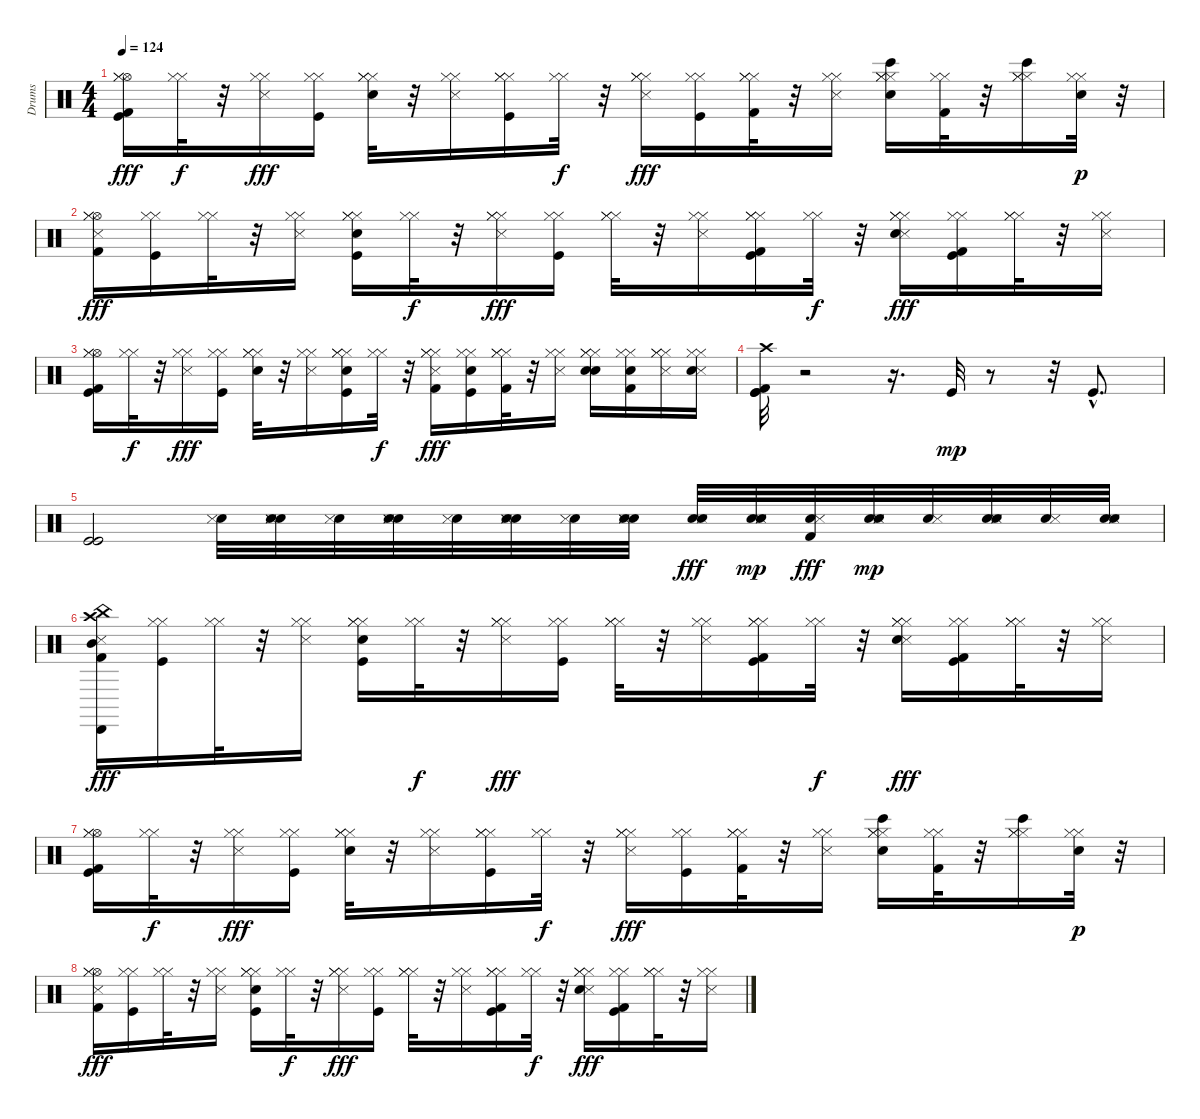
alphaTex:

\track ("Drums" "Drums") {instrument percussion}
\staff {score}
\articulation defaults
\ts (4 4)
\tempo 124
\clef neutral
\ks c
("Kick (hit)" "Hi-Hat (open)" "Kick (hit) 2" "Hi-Hat (closed)" "Hi-Hat (closed)").16{dy fff} ("Hi-Hat (closed)" "Hi-Hat (closed)").32{dy f} r.32 ("Metronome (hit)" "Hi-Hat (closed)" "Hi-Hat (closed)").16{dy fff} ("Kick (hit)" "Hi-Hat (closed)" "Hi-Hat (closed)").16 ("Electric Snare (hit)" "Hi-Hat (closed)" "Hi-Hat (closed)" "Hi-Hat (closed)").32 r.32 ("Metronome (hit)" "Hi-Hat (closed)" "Hi-Hat (closed)").16 ("Kick (hit)" "Hi-Hat (closed)" "Hi-Hat (closed)" "Hi-Hat (closed)").16 ("Hi-Hat (closed)" "Hi-Hat (closed)").32{dy f} r.32 ("Metronome (hit)" "Hi-Hat (closed)" "Hi-Hat (closed)" "Hi-Hat (closed)").16{dy fff} ("Kick (hit)" "Hi-Hat (closed)" "Hi-Hat (closed)").16 ("Hi-Hat (closed)" "Kick (hit) 2" "Hi-Hat (closed)" "Hi-Hat (closed)").32 r.32 ("Metronome (hit)" "Hi-Hat (closed)" "Hi-Hat (closed)").16 ("Bongo High (hit)" "Electric Snare (hit)" "Hi-Hat (closed)" "Hi-Hat (closed)" "Hi-Hat (closed)").16 ("Kick (hit) 2" "Hi-Hat (closed)" "Hi-Hat (closed)").32 r.32 ("Bongo High (hit)" "Hi-Hat (closed)" "Hi-Hat (closed)" "Hi-Hat (closed)").16 ("Hi-Hat (closed)" "Hi-Hat (closed)" "Electric Snare (hit)").32{dy p} r.32 |
("Metronome (hit)" "Kick (hit) 2" "Hi-Hat (open)" "Hi-Hat (closed)" "Hi-Hat (closed)").16{dy fff} ("Kick (hit)" "Hi-Hat (closed)" "Hi-Hat (closed)").16 ("Hi-Hat (closed)" "Hi-Hat (closed)").32 r.32 ("Metronome (hit)" "Hi-Hat (closed)" "Hi-Hat (closed)").16 ("Kick (hit)" "Electric Snare (hit)" "Hi-Hat (closed)" "Hi-Hat (closed)" "Hi-Hat (closed)").16 ("Hi-Hat (closed)" "Hi-Hat (closed)").32{dy f} r.32 ("Metronome (hit)" "Hi-Hat (closed)" "Hi-Hat (closed)" "Hi-Hat (closed)").16{dy fff} ("Kick (hit)" "Hi-Hat (closed)" "Hi-Hat (closed)").16 ("Hi-Hat (closed)" "Hi-Hat (closed)" "Hi-Hat (closed)").32 r.32 ("Metronome (hit)" "Hi-Hat (closed)" "Hi-Hat (closed)").16 ("Kick (hit)" "Kick (hit) 2" "Hi-Hat (closed)" "Hi-Hat (closed)" "Hi-Hat (closed)").16 ("Hi-Hat (closed)" "Hi-Hat (closed)").32{dy f} r.32 ("Metronome (hit)" "Electric Snare (hit)" "Hi-Hat (closed)" "Hi-Hat (closed)" "Hi-Hat (closed)").16{dy fff} ("Kick (hit)" "Kick (hit) 2" "Hi-Hat (closed)" "Hi-Hat (closed)").16 ("Hi-Hat (closed)" "Hi-Hat (closed)" "Hi-Hat (closed)").32 r.32 ("Metronome (hit)" "Hi-Hat (closed)" "Hi-Hat (closed)").16 |
("Kick (hit)" "Hi-Hat (open)" "Kick (hit) 2" "Hi-Hat (closed)" "Hi-Hat (closed)").16 ("Hi-Hat (closed)" "Hi-Hat (closed)").32{dy f} r.32 ("Metronome (hit)" "Hi-Hat (closed)" "Hi-Hat (closed)").16{dy fff} ("Kick (hit)" "Hi-Hat (closed)" "Hi-Hat (closed)").16 ("Hi-Hat (closed)" "Electric Snare (hit)" "Hi-Hat (closed)" "Hi-Hat (closed)").32 r.32 ("Metronome (hit)" "Hi-Hat (closed)" "Hi-Hat (closed)").16 ("Kick (hit)" "Electric Snare (hit)" "Hi-Hat (closed)" "Hi-Hat (closed)" "Hi-Hat (closed)").16 ("Hi-Hat (closed)" "Hi-Hat (closed)").32{dy f} r.32 ("Metronome (hit)" "Kick (hit) 2" "Hi-Hat (closed)" "Hi-Hat (closed)" "Hi-Hat (closed)").16{dy fff} ("Kick (hit)" "Electric Snare (hit)" "Hi-Hat (closed)" "Hi-Hat (closed)").16 ("Kick (hit) 2" "Hi-Hat (closed)" "Hi-Hat (closed)" "Hi-Hat (closed)").32 r.32 ("Metronome (hit)" "Hi-Hat (closed)" "Hi-Hat (closed)").16 ("Hand Clap (hit)" "Hi-Hat (closed)" "Electric Snare (hit)" "Hi-Hat (closed)" "Hi-Hat (closed)").16 ("Hand Clap (hit)" "Kick (hit) 2" "Hi-Hat (closed)" "Hi-Hat (closed)").16 ("Snare (side stick) 3" "Hi-Hat (closed)" "Hi-Hat (closed)" "Hi-Hat (closed)").16 ("Snare (side stick) 3" "Electric Snare (hit)" "Hi-Hat (closed)" "Hi-Hat (closed)").16 |
("Kick (hit)" "Kick (hit)" "Crash high (hit)" "Kick (hit) 2").32 r.2 r.16{d} "Kick (hit)".32{dy mp} r.8 r.32 "Kick (hit)"{hac}.8{d} |
("Kick (hit)" "Kick (hit)").2 ("Snare (hit) 2" "Snare (side stick) 3").32 ("Snare (hit) 2" "Snare (side stick) 3" "Snare (hit) 2" "Snare (side stick) 3").32 ("Snare (hit) 2" "Snare (side stick) 3").32 ("Snare (hit) 2" "Snare (side stick) 3" "Snare (hit) 2" "Snare (side stick) 3").32 ("Snare (hit) 2" "Snare (side stick) 3").32 ("Snare (hit) 2" "Snare (side stick) 3" "Snare (hit) 2" "Snare (side stick) 3").32 ("Snare (hit) 2" "Snare (side stick) 3").32 ("Snare (hit) 2" "Snare (side stick) 3" "Snare (hit) 2" "Snare (side stick) 3").32 ("Snare (hit) 2" "Snare (side stick) 3" "Electric Snare (hit)").32{dy fff} ("Snare (hit) 2" "Snare (side stick) 3" "Snare (hit) 2" "Snare (side stick) 3").32{dy mp} ("Snare (hit) 2" "Snare (side stick) 3" "Kick (hit) 2").32{dy fff} ("Snare (hit) 2" "Snare (side stick) 3" "Snare (hit) 2" "Snare (side stick) 3").32{dy mp} ("Snare (hit) 2" "Snare (side stick) 3").32 ("Snare (hit) 2" "Snare (side stick) 3" "Snare (hit) 2" "Snare (side stick) 3").32 ("Snare (hit) 2" "Snare (side stick) 3").32 ("Snare (hit) 2" "Snare (side stick) 3" "Snare (hit) 2" "Snare (side stick) 3").32 |
("Mid Tom (hit)" "Cabasa (hit)" "Metronome (hit)" "Crash high (hit)" "China (hit)" "Kick (hit) 2").16{dy fff} ("Kick (hit)" "Hi-Hat (closed)" "Hi-Hat (closed)").16 ("Hi-Hat (closed)" "Hi-Hat (closed)").32 r.32 ("Metronome (hit)" "Hi-Hat (closed)" "Hi-Hat (closed)").16 ("Kick (hit)" "Hi-Hat (closed)" "Electric Snare (hit)" "Hi-Hat (closed)" "Hi-Hat (closed)").16 ("Hi-Hat (closed)" "Hi-Hat (closed)").32{dy f} r.32 ("Metronome (hit)" "Hi-Hat (closed)" "Hi-Hat (closed)" "Hi-Hat (closed)").16{dy fff} ("Kick (hit)" "Hi-Hat (closed)" "Hi-Hat (closed)").16 ("Hi-Hat (closed)" "Hi-Hat (closed)" "Hi-Hat (closed)").32 r.32 ("Metronome (hit)" "Hi-Hat (closed)" "Hi-Hat (closed)").16 ("Kick (hit)" "Hi-Hat (closed)" "Kick (hit) 2" "Hi-Hat (closed)" "Hi-Hat (closed)").16 ("Hi-Hat (closed)" "Hi-Hat (closed)").32{dy f} r.32 ("Metronome (hit)" "Hi-Hat (closed)" "Electric Snare (hit)" "Hi-Hat (closed)" "Hi-Hat (closed)").16{dy fff} ("Kick (hit)" "Kick (hit) 2" "Hi-Hat (closed)" "Hi-Hat (closed)").16 ("Hi-Hat (closed)" "Hi-Hat (closed)" "Hi-Hat (closed)").32 r.32 ("Metronome (hit)" "Hi-Hat (closed)" "Hi-Hat (closed)").16 |
("Kick (hit)" "Hi-Hat (open)" "Kick (hit) 2" "Hi-Hat (closed)" "Hi-Hat (closed)").16 ("Hi-Hat (closed)" "Hi-Hat (closed)").32{dy f} r.32 ("Metronome (hit)" "Hi-Hat (closed)" "Hi-Hat (closed)").16{dy fff} ("Kick (hit)" "Hi-Hat (closed)" "Hi-Hat (closed)").16 ("Electric Snare (hit)" "Hi-Hat (closed)" "Hi-Hat (closed)" "Hi-Hat (closed)").32 r.32 ("Metronome (hit)" "Hi-Hat (closed)" "Hi-Hat (closed)").16 ("Kick (hit)" "Hi-Hat (closed)" "Hi-Hat (closed)" "Hi-Hat (closed)").16 ("Hi-Hat (closed)" "Hi-Hat (closed)").32{dy f} r.32 ("Metronome (hit)" "Hi-Hat (closed)" "Hi-Hat (closed)" "Hi-Hat (closed)").16{dy fff} ("Kick (hit)" "Hi-Hat (closed)" "Hi-Hat (closed)").16 ("Hi-Hat (closed)" "Kick (hit) 2" "Hi-Hat (closed)" "Hi-Hat (closed)").32 r.32 ("Metronome (hit)" "Hi-Hat (closed)" "Hi-Hat (closed)").16 ("Bongo High (hit)" "Electric Snare (hit)" "Hi-Hat (closed)" "Hi-Hat (closed)" "Hi-Hat (closed)").16 ("Kick (hit) 2" "Hi-Hat (closed)" "Hi-Hat (closed)").32 r.32 ("Bongo High (hit)" "Hi-Hat (closed)" "Hi-Hat (closed)" "Hi-Hat (closed)").16 ("Hi-Hat (closed)" "Hi-Hat (closed)" "Electric Snare (hit)").32{dy p} r.32 |
("Metronome (hit)" "Kick (hit) 2" "Hi-Hat (open)" "Hi-Hat (closed)" "Hi-Hat (closed)").16{dy fff} ("Kick (hit)" "Hi-Hat (closed)" "Hi-Hat (closed)").16 ("Hi-Hat (closed)" "Hi-Hat (closed)").32 r.32 ("Metronome (hit)" "Hi-Hat (closed)" "Hi-Hat (closed)").16 ("Kick (hit)" "Electric Snare (hit)" "Hi-Hat (closed)" "Hi-Hat (closed)" "Hi-Hat (closed)").16 ("Hi-Hat (closed)" "Hi-Hat (closed)").32{dy f} r.32 ("Metronome (hit)" "Hi-Hat (closed)" "Hi-Hat (closed)" "Hi-Hat (closed)").16{dy fff} ("Kick (hit)" "Hi-Hat (closed)" "Hi-Hat (closed)").16 ("Hi-Hat (closed)" "Hi-Hat (closed)" "Hi-Hat (closed)").32 r.32 ("Metronome (hit)" "Hi-Hat (closed)" "Hi-Hat (closed)").16 ("Kick (hit)" "Kick (hit) 2" "Hi-Hat (closed)" "Hi-Hat (closed)" "Hi-Hat (closed)").16 ("Hi-Hat (closed)" "Hi-Hat (closed)").32{dy f} r.32 ("Metronome (hit)" "Electric Snare (hit)" "Hi-Hat (closed)" "Hi-Hat (closed)" "Hi-Hat (closed)").16{dy fff} ("Kick (hit)" "Kick (hit) 2" "Hi-Hat (closed)" "Hi-Hat (closed)").16 ("Hi-Hat (closed)" "Hi-Hat (closed)" "Hi-Hat (closed)").32 r.32 ("Metronome (hit)" "Hi-Hat (closed)" "Hi-Hat (closed)").16
